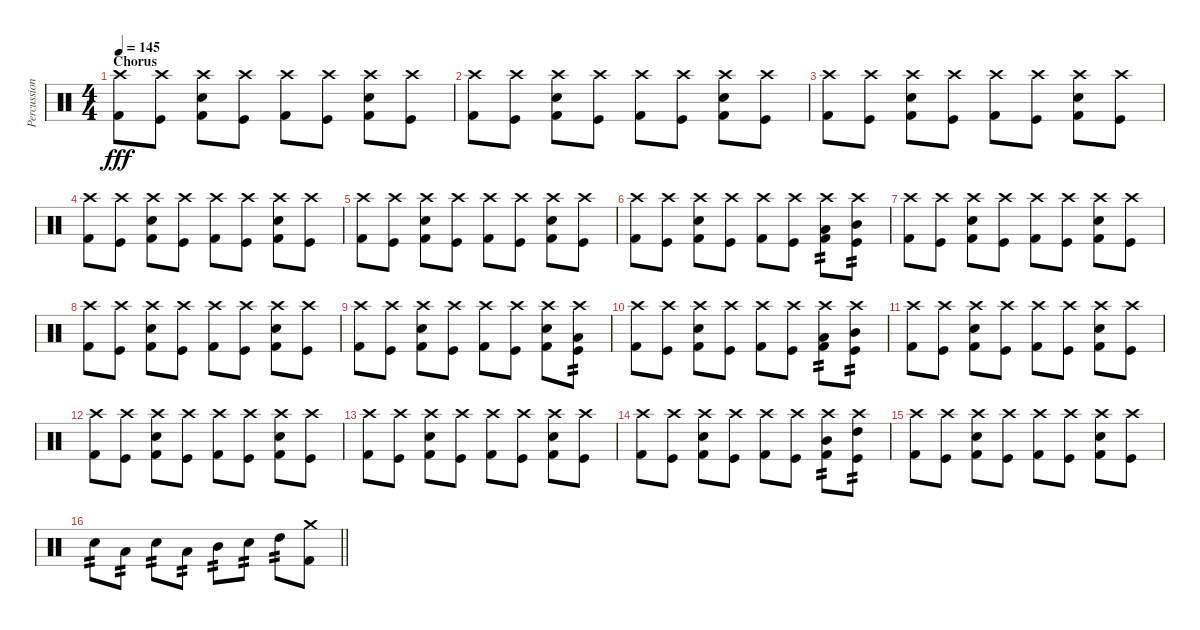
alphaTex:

\track ("Percussion" "Percussion") {instrument percussion}
\staff {score}
\articulation defaults
\ts (4 4)
\section ("" "Chorus")
\tempo 145
\clef neutral
\ks c
("Crash high (hit)" "Kick (hit) 2").8{dy fff} ("Crash high (hit)" "Kick (hit)").8 ("Crash high (hit)" "Snare (hit) 2" "Kick (hit) 2").8 ("Crash high (hit)" "Kick (hit)").8 ("Crash high (hit)" "Kick (hit) 2").8 ("Crash high (hit)" "Kick (hit)").8 ("Crash high (hit)" "Snare (hit) 2" "Kick (hit) 2").8 ("Crash high (hit)" "Kick (hit)").8 |
("Crash high (hit)" "Kick (hit) 2").8 ("Crash high (hit)" "Kick (hit)").8 ("Crash high (hit)" "Snare (hit) 2" "Kick (hit) 2").8 ("Crash high (hit)" "Kick (hit)").8 ("Crash high (hit)" "Kick (hit) 2").8 ("Crash high (hit)" "Kick (hit)").8 ("Crash high (hit)" "Snare (hit) 2" "Kick (hit) 2").8 ("Crash high (hit)" "Kick (hit)").8 |
("Crash high (hit)" "Kick (hit) 2").8 ("Crash high (hit)" "Kick (hit)").8 ("Crash high (hit)" "Snare (hit) 2" "Kick (hit) 2").8 ("Crash high (hit)" "Kick (hit)").8 ("Crash high (hit)" "Kick (hit) 2").8 ("Crash high (hit)" "Kick (hit)").8 ("Crash high (hit)" "Snare (hit) 2" "Kick (hit) 2").8 ("Crash high (hit)" "Kick (hit)").8 |
("Crash high (hit)" "Kick (hit) 2").8 ("Crash high (hit)" "Kick (hit)").8 ("Crash high (hit)" "Snare (hit) 2" "Kick (hit) 2").8 ("Crash high (hit)" "Kick (hit)").8 ("Crash high (hit)" "Kick (hit) 2").8 ("Crash high (hit)" "Kick (hit)").8 ("Crash high (hit)" "Snare (hit) 2" "Kick (hit) 2").8 ("Crash high (hit)" "Kick (hit)").8 |
("Crash high (hit)" "Kick (hit) 2").8 ("Crash high (hit)" "Kick (hit)").8 ("Crash high (hit)" "Snare (hit) 2" "Kick (hit) 2").8 ("Crash high (hit)" "Kick (hit)").8 ("Crash high (hit)" "Kick (hit) 2").8 ("Crash high (hit)" "Kick (hit)").8 ("Crash high (hit)" "Snare (hit) 2" "Kick (hit) 2").8 ("Crash high (hit)" "Kick (hit)").8 |
("Crash high (hit)" "Kick (hit) 2").8 ("Crash high (hit)" "Kick (hit)").8 ("Crash high (hit)" "Snare (hit) 2" "Kick (hit) 2").8 ("Crash high (hit)" "Kick (hit)").8 ("Crash high (hit)" "Kick (hit) 2").8 ("Crash high (hit)" "Kick (hit)").8 ("Crash high (hit)" "Low Tom (hit)" "Kick (hit) 2").8{tp 2} ("Crash high (hit)" "Mid Tom (hit)" "Kick (hit)").8{tp 2} |
("Crash high (hit)" "Kick (hit) 2").8 ("Crash high (hit)" "Kick (hit)").8 ("Crash high (hit)" "Snare (hit) 2" "Kick (hit) 2").8 ("Crash high (hit)" "Kick (hit)").8 ("Crash high (hit)" "Kick (hit) 2").8 ("Crash high (hit)" "Kick (hit)").8 ("Crash high (hit)" "Snare (hit) 2" "Kick (hit) 2").8 ("Crash high (hit)" "Kick (hit)").8 |
("Crash high (hit)" "Kick (hit) 2").8 ("Crash high (hit)" "Kick (hit)").8 ("Crash high (hit)" "Snare (hit) 2" "Kick (hit) 2").8 ("Crash high (hit)" "Kick (hit)").8 ("Crash high (hit)" "Kick (hit) 2").8 ("Crash high (hit)" "Kick (hit)").8 ("Crash high (hit)" "Snare (hit) 2" "Kick (hit) 2").8 ("Crash high (hit)" "Kick (hit)").8 |
("Crash high (hit)" "Kick (hit) 2").8 ("Crash high (hit)" "Kick (hit)").8 ("Crash high (hit)" "Snare (hit) 2" "Kick (hit) 2").8 ("Crash high (hit)" "Kick (hit)").8 ("Crash high (hit)" "Kick (hit) 2").8 ("Crash high (hit)" "Kick (hit)").8 ("Crash high (hit)" "Snare (hit) 2" "Kick (hit) 2").8 ("Crash high (hit)" "Low Tom (hit)" "Kick (hit)").8{tp 2} |
("Crash high (hit)" "Kick (hit) 2").8 ("Crash high (hit)" "Kick (hit)").8 ("Crash high (hit)" "Snare (hit) 2" "Kick (hit) 2").8 ("Crash high (hit)" "Kick (hit)").8 ("Crash high (hit)" "Kick (hit) 2").8 ("Crash high (hit)" "Kick (hit)").8 ("Crash high (hit)" "Low Tom (hit)" "Kick (hit) 2").8{tp 2} ("Crash high (hit)" "Mid Tom (hit)" "Kick (hit)").8{tp 2} |
("Crash high (hit)" "Kick (hit) 2").8 ("Crash high (hit)" "Kick (hit)").8 ("Crash high (hit)" "Snare (hit) 2" "Kick (hit) 2").8 ("Crash high (hit)" "Kick (hit)").8 ("Crash high (hit)" "Kick (hit) 2").8 ("Crash high (hit)" "Kick (hit)").8 ("Crash high (hit)" "Snare (hit) 2" "Kick (hit) 2").8 ("Crash high (hit)" "Kick (hit)").8 |
("Crash high (hit)" "Kick (hit) 2").8 ("Crash high (hit)" "Kick (hit)").8 ("Crash high (hit)" "Snare (hit) 2" "Kick (hit) 2").8 ("Crash high (hit)" "Kick (hit)").8 ("Crash high (hit)" "Kick (hit) 2").8 ("Crash high (hit)" "Kick (hit)").8 ("Crash high (hit)" "Snare (hit) 2" "Kick (hit) 2").8 ("Crash high (hit)" "Kick (hit)").8 |
("Crash high (hit)" "Kick (hit) 2").8 ("Crash high (hit)" "Kick (hit)").8 ("Crash high (hit)" "Snare (hit) 2" "Kick (hit) 2").8 ("Crash high (hit)" "Kick (hit)").8 ("Crash high (hit)" "Kick (hit) 2").8 ("Crash high (hit)" "Kick (hit)").8 ("Crash high (hit)" "Snare (hit) 2" "Kick (hit) 2").8 ("Crash high (hit)" "Kick (hit)").8 |
("Crash high (hit)" "Kick (hit) 2").8 ("Crash high (hit)" "Kick (hit)").8 ("Crash high (hit)" "Snare (hit) 2" "Kick (hit) 2").8 ("Crash high (hit)" "Kick (hit)").8 ("Crash high (hit)" "Kick (hit) 2").8 ("Crash high (hit)" "Kick (hit)").8 ("Crash high (hit)" "Mid Tom (hit)" "Kick (hit) 2").8{tp 2} ("Crash high (hit)" "High Tom (hit)" "Kick (hit)").8{tp 2} |
("Crash high (hit)" "Kick (hit) 2").8 ("Crash high (hit)" "Kick (hit)").8 ("Crash high (hit)" "Snare (hit) 2" "Kick (hit) 2").8 ("Crash high (hit)" "Kick (hit)").8 ("Crash high (hit)" "Kick (hit) 2").8 ("Crash high (hit)" "Kick (hit)").8 ("Crash high (hit)" "Snare (hit) 2" "Kick (hit) 2").8 ("Crash high (hit)" "Kick (hit)").8 |
\barLineRight lightlight "Snare (hit) 2".8{tp 2} "Low Tom (hit)".8{tp 2} "Snare (hit) 2".8{tp 2} "Low Tom (hit)".8{tp 2} "Mid Tom (hit)".8{tp 2} "Snare (hit) 2".8{tp 2} "High Tom (hit)".8{tp 2}
("Crash medium (hit)" "Kick (hit) 2").8
